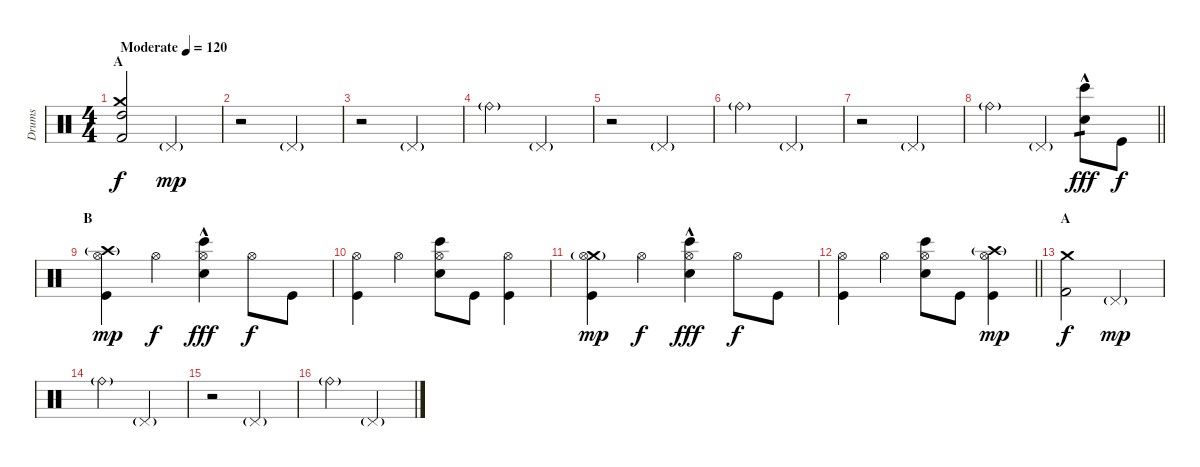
\track ("Drums" "Drums") {instrument percussion}
\staff {score}
\articulation defaults
\ts (4 4)
\section ("" "A")
\tempo (120 "Moderate")
\clef neutral
\ks c
("High Tom (hit)" "Crash medium (hit)" "Kick (hit) 2").2{dy f} "Pedal Hi-Hat (hit)"{g}.2{dy mp} |
r.2 "Pedal Hi-Hat (hit)"{g}.2 |
r.2 "Pedal Hi-Hat (hit)"{g}.2 |
"Ride (bell)"{g}.2 "Pedal Hi-Hat (hit)"{g}.2 |
r.2 "Pedal Hi-Hat (hit)"{g}.2 |
"Ride (bell)"{g}.2 "Pedal Hi-Hat (hit)"{g}.2 |
r.2 "Pedal Hi-Hat (hit)"{g}.2 |
\barLineRight lightlight "Ride (bell)"{g}.2 "Pedal Hi-Hat (hit)"{g}.4
("Snare (hit) 2"{hac} "Bongo High (hit)").8{tp 1 dy fff} "Kick (hit)".8{dy f} |
\section ("" "B")
("Crash high (hit)"{g} "Hi-Hat (open)" "Kick (hit)").4{dy mp} "Hi-Hat (open)".4{dy f} ("Hi-Hat (open)" "Snare (hit) 2"{hac} "Bongo High (hit)").4{dy fff} "Hi-Hat (open)".8{dy f} "Kick (hit)".8 |
("Hi-Hat (open)" "Kick (hit)").4 "Hi-Hat (open)".4 ("Hi-Hat (open)" "Snare (hit) 2" "Bongo High (hit)").8 "Kick (hit)".8 ("Hi-Hat (open)" "Kick (hit)").4 |
("Crash medium (hit)"{g} "Hi-Hat (open)" "Kick (hit)").4{dy mp} "Hi-Hat (open)".4{dy f} ("Hi-Hat (open)" "Snare (hit) 2"{hac} "Bongo High (hit)").4{dy fff} "Hi-Hat (open)".8{dy f} "Kick (hit)".8 |
\barLineRight lightlight
("Hi-Hat (open)" "Kick (hit)").4 "Hi-Hat (open)".4 ("Hi-Hat (open)" "Snare (hit) 2" "Bongo High (hit)").8 "Kick (hit)".8 ("Crash high (hit)"{g} "Hi-Hat (open)" "Kick (hit)").4{dy mp} |
\section ("" "A")
("Crash medium (hit)" "Kick (hit) 2").2{dy f} "Pedal Hi-Hat (hit)"{g}.2{dy mp} |
"Ride (bell)"{g}.2 "Pedal Hi-Hat (hit)"{g}.2 |
r.2 "Pedal Hi-Hat (hit)"{g}.2 |
"Ride (bell)"{g}.2 "Pedal Hi-Hat (hit)"{g}.2
